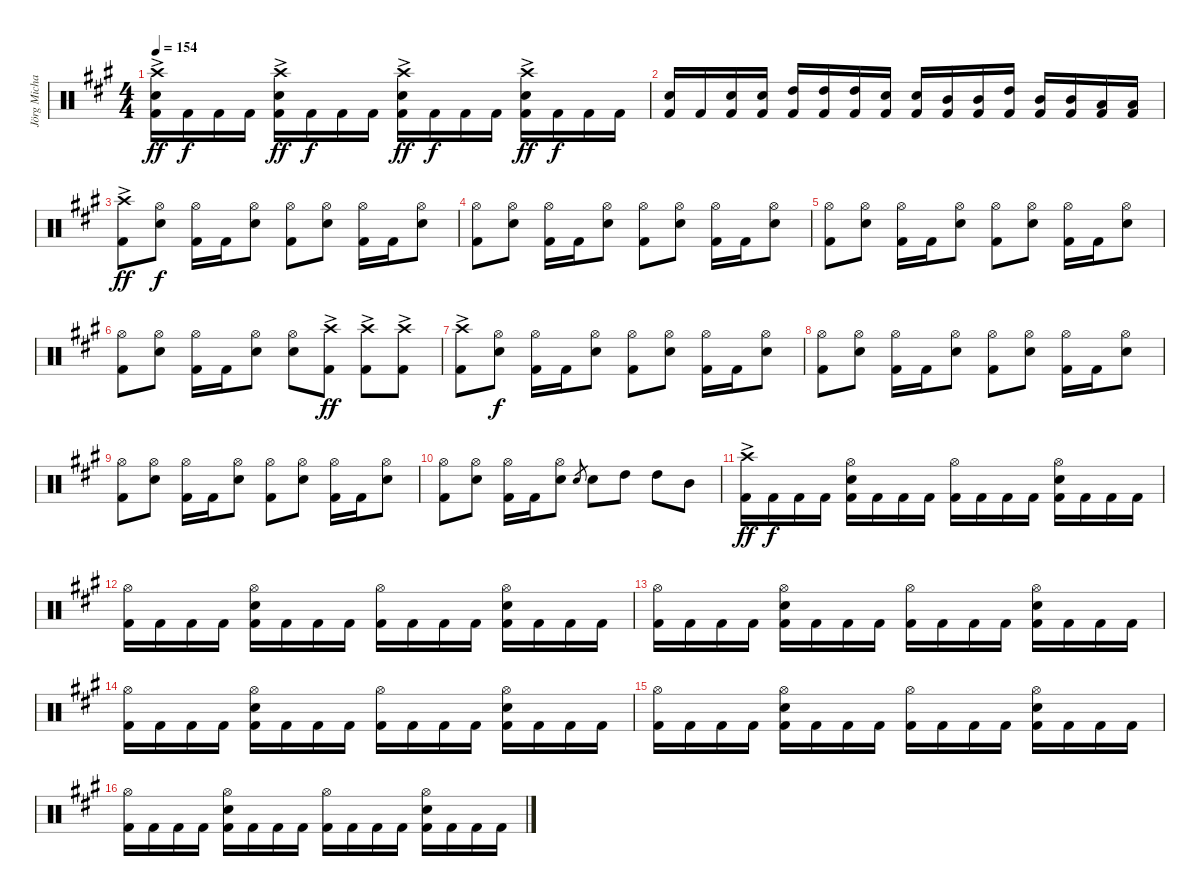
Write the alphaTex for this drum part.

\track ("Jörg Michael" "Jörg Micha") {instrument percussion}
\staff {score}
\articulation defaults
\ts (4 4)
\tempo 154
\clef neutral
\ks a
("Crash high (hit)"{ac} "Kick (hit) 2"{ac} "Electric Snare (hit)"{ac}).16{dy ff} "Kick (hit) 2".16{dy f} "Kick (hit) 2".16 "Kick (hit) 2".16 ("Electric Snare (hit)"{ac} "Kick (hit) 2"{ac} "Crash high (hit)"{ac}).16{dy ff} "Kick (hit) 2".16{dy f} "Kick (hit) 2".16 "Kick (hit) 2".16 ("Electric Snare (hit)"{ac} "Kick (hit) 2"{ac} "Crash high (hit)"{ac}).16{dy ff} "Kick (hit) 2".16{dy f} "Kick (hit) 2".16 "Kick (hit) 2".16 ("Electric Snare (hit)"{ac} "Kick (hit) 2"{ac} "Crash high (hit)"{ac}).16{dy ff} "Kick (hit) 2".16{dy f} "Kick (hit) 2".16 "Kick (hit) 2".16 |
("Electric Snare (hit)" "Kick (hit) 2").16 "Kick (hit) 2".16 ("Electric Snare (hit)" "Kick (hit) 2").16 ("Electric Snare (hit)" "Kick (hit) 2").16 ("High Tom (hit)" "Kick (hit) 2").16 ("High Tom (hit)" "Kick (hit) 2").16 ("High Tom (hit)" "Kick (hit) 2").16 ("Electric Snare (hit)" "Kick (hit) 2").16 ("Electric Snare (hit)" "Kick (hit) 2").16 ("Mid Tom (hit)" "Kick (hit) 2").16 ("Mid Tom (hit)" "Kick (hit) 2").16 ("High Tom (hit)" "Kick (hit) 2").16 ("Mid Tom (hit)" "Kick (hit) 2").16 ("Mid Tom (hit)" "Kick (hit) 2").16 ("Low Tom (hit)" "Kick (hit) 2").16 ("Low Tom (hit)" "Kick (hit) 2").16 |
("Crash high (hit)"{ac} "Kick (hit) 2"{ac}).8{dy ff} ("Hi-Hat (open)" "Electric Snare (hit)").8{dy f} ("Hi-Hat (open)" "Kick (hit) 2").16 "Kick (hit) 2".16 ("Hi-Hat (open)" "Electric Snare (hit)").8 ("Hi-Hat (open)" "Kick (hit) 2").8 ("Hi-Hat (open)" "Electric Snare (hit)").8 ("Hi-Hat (open)" "Kick (hit) 2").16 "Kick (hit) 2".16 ("Hi-Hat (open)" "Electric Snare (hit)").8 |
("Hi-Hat (open)" "Kick (hit) 2").8 ("Hi-Hat (open)" "Electric Snare (hit)").8 ("Hi-Hat (open)" "Kick (hit) 2").16 "Kick (hit) 2".16 ("Hi-Hat (open)" "Electric Snare (hit)").8 ("Hi-Hat (open)" "Kick (hit) 2").8 ("Hi-Hat (open)" "Electric Snare (hit)").8 ("Hi-Hat (open)" "Kick (hit) 2").16 "Kick (hit) 2".16 ("Hi-Hat (open)" "Electric Snare (hit)").8 |
("Hi-Hat (open)" "Kick (hit) 2").8 ("Hi-Hat (open)" "Electric Snare (hit)").8 ("Hi-Hat (open)" "Kick (hit) 2").16 "Kick (hit) 2".16 ("Hi-Hat (open)" "Electric Snare (hit)").8 ("Hi-Hat (open)" "Kick (hit) 2").8 ("Hi-Hat (open)" "Electric Snare (hit)").8 ("Hi-Hat (open)" "Kick (hit) 2").16 "Kick (hit) 2".16 ("Hi-Hat (open)" "Electric Snare (hit)").8 |
("Hi-Hat (open)" "Kick (hit) 2").8 ("Hi-Hat (open)" "Electric Snare (hit)").8 ("Hi-Hat (open)" "Kick (hit) 2").16 "Kick (hit) 2".16 ("Hi-Hat (open)" "Electric Snare (hit)").8 ("Hi-Hat (open)" "Electric Snare (hit)").8 ("Crash high (hit)"{ac} "Kick (hit) 2"{ac}).8{dy ff} ("Crash high (hit)"{ac} "Kick (hit) 2"{ac}).8 ("Crash high (hit)"{ac} "Kick (hit) 2"{ac}).8 |
("Crash high (hit)"{ac} "Kick (hit) 2"{ac}).8 ("Hi-Hat (open)" "Electric Snare (hit)").8{dy f} ("Hi-Hat (open)" "Kick (hit) 2").16 "Kick (hit) 2".16 ("Hi-Hat (open)" "Electric Snare (hit)").8 ("Hi-Hat (open)" "Kick (hit) 2").8 ("Hi-Hat (open)" "Electric Snare (hit)").8 ("Hi-Hat (open)" "Kick (hit) 2").16 "Kick (hit) 2".16 ("Hi-Hat (open)" "Electric Snare (hit)").8 |
("Hi-Hat (open)" "Kick (hit) 2").8 ("Hi-Hat (open)" "Electric Snare (hit)").8 ("Hi-Hat (open)" "Kick (hit) 2").16 "Kick (hit) 2".16 ("Hi-Hat (open)" "Electric Snare (hit)").8 ("Hi-Hat (open)" "Kick (hit) 2").8 ("Hi-Hat (open)" "Electric Snare (hit)").8 ("Hi-Hat (open)" "Kick (hit) 2").16 "Kick (hit) 2".16 ("Hi-Hat (open)" "Electric Snare (hit)").8 |
("Hi-Hat (open)" "Kick (hit) 2").8 ("Hi-Hat (open)" "Electric Snare (hit)").8 ("Hi-Hat (open)" "Kick (hit) 2").16 "Kick (hit) 2".16 ("Hi-Hat (open)" "Electric Snare (hit)").8 ("Hi-Hat (open)" "Kick (hit) 2").8 ("Hi-Hat (open)" "Electric Snare (hit)").8 ("Hi-Hat (open)" "Kick (hit) 2").16 "Kick (hit) 2".16 ("Hi-Hat (open)" "Electric Snare (hit)").8 |
("Hi-Hat (open)" "Kick (hit) 2").8 ("Hi-Hat (open)" "Electric Snare (hit)").8 ("Hi-Hat (open)" "Kick (hit) 2").16 "Kick (hit) 2".16 ("Hi-Hat (open)" "Electric Snare (hit)").8 "Electric Snare (hit)".8{gr} "Electric Snare (hit)".8 "High Tom (hit)".8 "High Tom (hit)".8 "Mid Tom (hit)".8 |
("Crash high (hit)"{ac} "Kick (hit) 2"{ac}).16{dy ff} "Kick (hit) 2".16{dy f} "Kick (hit) 2".16 "Kick (hit) 2".16 ("Electric Snare (hit)" "Kick (hit) 2" "Hi-Hat (open)").16 "Kick (hit) 2".16 "Kick (hit) 2".16 "Kick (hit) 2".16 ("Kick (hit) 2" "Hi-Hat (open)").16 "Kick (hit) 2".16 "Kick (hit) 2".16 "Kick (hit) 2".16 ("Electric Snare (hit)" "Kick (hit) 2" "Hi-Hat (open)").16 "Kick (hit) 2".16 "Kick (hit) 2".16 "Kick (hit) 2".16 |
("Hi-Hat (open)" "Kick (hit) 2").16 "Kick (hit) 2".16 "Kick (hit) 2".16 "Kick (hit) 2".16 ("Electric Snare (hit)" "Kick (hit) 2" "Hi-Hat (open)").16 "Kick (hit) 2".16 "Kick (hit) 2".16 "Kick (hit) 2".16 ("Kick (hit) 2" "Hi-Hat (open)").16 "Kick (hit) 2".16 "Kick (hit) 2".16 "Kick (hit) 2".16 ("Electric Snare (hit)" "Kick (hit) 2" "Hi-Hat (open)").16 "Kick (hit) 2".16 "Kick (hit) 2".16 "Kick (hit) 2".16 |
("Hi-Hat (open)" "Kick (hit) 2").16 "Kick (hit) 2".16 "Kick (hit) 2".16 "Kick (hit) 2".16 ("Electric Snare (hit)" "Kick (hit) 2" "Hi-Hat (open)").16 "Kick (hit) 2".16 "Kick (hit) 2".16 "Kick (hit) 2".16 ("Kick (hit) 2" "Hi-Hat (open)").16 "Kick (hit) 2".16 "Kick (hit) 2".16 "Kick (hit) 2".16 ("Electric Snare (hit)" "Kick (hit) 2" "Hi-Hat (open)").16 "Kick (hit) 2".16 "Kick (hit) 2".16 "Kick (hit) 2".16 |
("Hi-Hat (open)" "Kick (hit) 2").16 "Kick (hit) 2".16 "Kick (hit) 2".16 "Kick (hit) 2".16 ("Electric Snare (hit)" "Kick (hit) 2" "Hi-Hat (open)").16 "Kick (hit) 2".16 "Kick (hit) 2".16 "Kick (hit) 2".16 ("Kick (hit) 2" "Hi-Hat (open)").16 "Kick (hit) 2".16 "Kick (hit) 2".16 "Kick (hit) 2".16 ("Electric Snare (hit)" "Kick (hit) 2" "Hi-Hat (open)").16 "Kick (hit) 2".16 "Kick (hit) 2".16 "Kick (hit) 2".16 |
("Hi-Hat (open)" "Kick (hit) 2").16 "Kick (hit) 2".16 "Kick (hit) 2".16 "Kick (hit) 2".16 ("Electric Snare (hit)" "Kick (hit) 2" "Hi-Hat (open)").16 "Kick (hit) 2".16 "Kick (hit) 2".16 "Kick (hit) 2".16 ("Kick (hit) 2" "Hi-Hat (open)").16 "Kick (hit) 2".16 "Kick (hit) 2".16 "Kick (hit) 2".16 ("Electric Snare (hit)" "Kick (hit) 2" "Hi-Hat (open)").16 "Kick (hit) 2".16 "Kick (hit) 2".16 "Kick (hit) 2".16 |
("Hi-Hat (open)" "Kick (hit) 2").16 "Kick (hit) 2".16 "Kick (hit) 2".16 "Kick (hit) 2".16 ("Electric Snare (hit)" "Kick (hit) 2" "Hi-Hat (open)").16 "Kick (hit) 2".16 "Kick (hit) 2".16 "Kick (hit) 2".16 ("Kick (hit) 2" "Hi-Hat (open)").16 "Kick (hit) 2".16 "Kick (hit) 2".16 "Kick (hit) 2".16 ("Electric Snare (hit)" "Kick (hit) 2" "Hi-Hat (open)").16 "Kick (hit) 2".16 "Kick (hit) 2".16 "Kick (hit) 2".16
